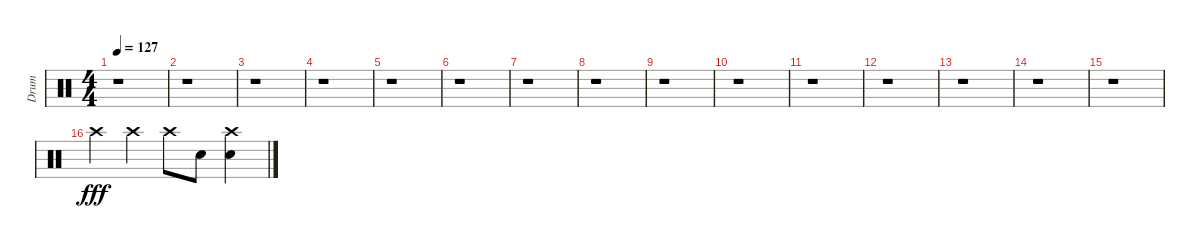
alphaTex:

\track ("Drum" "Drum") {instrument percussion}
\staff {score}
\articulation defaults
\ts (4 4)
\tempo 127
\clef neutral
\ks c
r.1{dy fff} |
r.1 |
r.1 |
r.1 |
r.1 |
r.1 |
r.1 |
r.1 |
r.1 |
r.1 |
r.1 |
r.1 |
r.1 |
r.1 |
r.1 |
"Crash high (hit)".4 "Crash high (hit)".4 "Crash high (hit)".8 "Snare (hit) 2".8 ("Electric Snare (hit)" "Crash high (hit)").4
